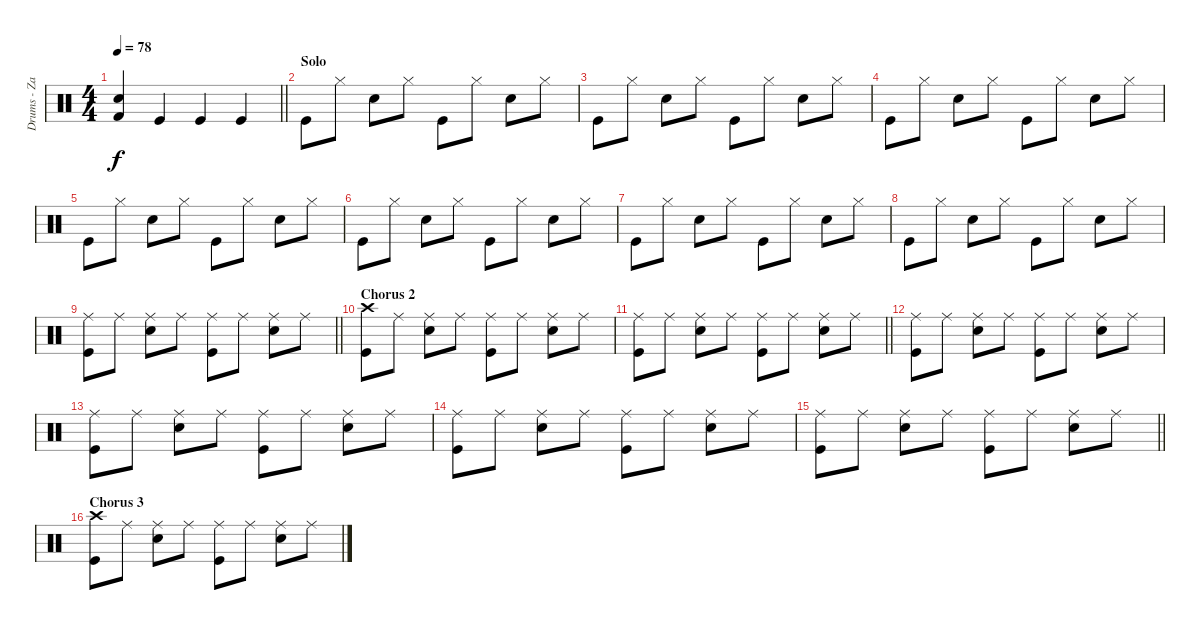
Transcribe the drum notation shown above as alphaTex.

\track ("Drums - Zakk Starkey" "Drums - Za") {instrument percussion}
\staff {score}
\articulation defaults
\ts (4 4)
\tempo 78
\clef neutral
\barLineRight lightlight
\ks c
("Snare (hit) 2" "Kick (hit) 2").4{dy f} "Kick (hit)".4 "Kick (hit)".4 "Kick (hit)".4 |
\section ("" "Solo")
"Kick (hit)".8 "Hi-Hat (closed)".8 "Snare (hit) 2".8 "Hi-Hat (closed)".8 "Kick (hit)".8 "Hi-Hat (closed)".8 "Snare (hit) 2".8 "Hi-Hat (closed)".8 |
"Kick (hit)".8 "Hi-Hat (closed)".8 "Snare (hit) 2".8 "Hi-Hat (closed)".8 "Kick (hit)".8 "Hi-Hat (closed)".8 "Snare (hit) 2".8 "Hi-Hat (closed)".8 |
"Kick (hit)".8 "Hi-Hat (closed)".8 "Snare (hit) 2".8 "Hi-Hat (closed)".8 "Kick (hit)".8 "Hi-Hat (closed)".8 "Snare (hit) 2".8 "Hi-Hat (closed)".8 |
"Kick (hit)".8 "Hi-Hat (closed)".8 "Snare (hit) 2".8 "Hi-Hat (closed)".8 "Kick (hit)".8 "Hi-Hat (closed)".8 "Snare (hit) 2".8 "Hi-Hat (closed)".8 |
"Kick (hit)".8 "Hi-Hat (closed)".8 "Snare (hit) 2".8 "Hi-Hat (closed)".8 "Kick (hit)".8 "Hi-Hat (closed)".8 "Snare (hit) 2".8 "Hi-Hat (closed)".8 |
"Kick (hit)".8 "Hi-Hat (closed)".8 "Snare (hit) 2".8 "Hi-Hat (closed)".8 "Kick (hit)".8 "Hi-Hat (closed)".8 "Snare (hit) 2".8 "Hi-Hat (closed)".8 |
"Kick (hit)".8 "Hi-Hat (closed)".8 "Snare (hit) 2".8 "Hi-Hat (closed)".8 "Kick (hit)".8 "Hi-Hat (closed)".8 "Snare (hit) 2".8 "Hi-Hat (closed)".8 |
\barLineRight lightlight
("Ride (middle)" "Kick (hit)").8 "Ride (middle)".8 ("Ride (middle)" "Snare (hit) 2").8 "Ride (middle)".8 ("Ride (middle)" "Kick (hit)").8 "Ride (middle)".8 ("Ride (middle)" "Snare (hit) 2").8 "Ride (middle)".8 |
\section ("" "Chorus 2")
("Crash high (hit)" "Kick (hit)").8 "Ride (middle)".8 ("Ride (middle)" "Snare (hit) 2").8 "Ride (middle)".8 ("Ride (middle)" "Kick (hit)").8 "Ride (middle)".8 ("Ride (middle)" "Snare (hit) 2").8 "Ride (middle)".8 |
\barLineRight lightlight
("Ride (middle)" "Kick (hit)").8 "Ride (middle)".8 ("Ride (middle)" "Snare (hit) 2").8 "Ride (middle)".8 ("Ride (middle)" "Kick (hit)").8 "Ride (middle)".8 ("Ride (middle)" "Snare (hit) 2").8 "Ride (middle)".8 |
("Ride (middle)" "Kick (hit)").8 "Ride (middle)".8 ("Ride (middle)" "Snare (hit) 2").8 "Ride (middle)".8 ("Ride (middle)" "Kick (hit)").8 "Ride (middle)".8 ("Ride (middle)" "Snare (hit) 2").8 "Ride (middle)".8 |
("Ride (middle)" "Kick (hit)").8 "Ride (middle)".8 ("Ride (middle)" "Snare (hit) 2").8 "Ride (middle)".8 ("Ride (middle)" "Kick (hit)").8 "Ride (middle)".8 ("Ride (middle)" "Snare (hit) 2").8 "Ride (middle)".8 |
("Ride (middle)" "Kick (hit)").8 "Ride (middle)".8 ("Ride (middle)" "Snare (hit) 2").8 "Ride (middle)".8 ("Ride (middle)" "Kick (hit)").8 "Ride (middle)".8 ("Ride (middle)" "Snare (hit) 2").8 "Ride (middle)".8 |
\barLineRight lightlight
("Ride (middle)" "Kick (hit)").8 "Ride (middle)".8 ("Ride (middle)" "Snare (hit) 2").8 "Ride (middle)".8 ("Ride (middle)" "Kick (hit)").8 "Ride (middle)".8 ("Ride (middle)" "Snare (hit) 2").8 "Ride (middle)".8 |
\section ("" "Chorus 3")
("Crash high (hit)" "Kick (hit)").8 "Ride (middle)".8 ("Ride (middle)" "Snare (hit) 2").8 "Ride (middle)".8 ("Ride (middle)" "Kick (hit)").8 "Ride (middle)".8 ("Ride (middle)" "Snare (hit) 2").8 "Ride (middle)".8
